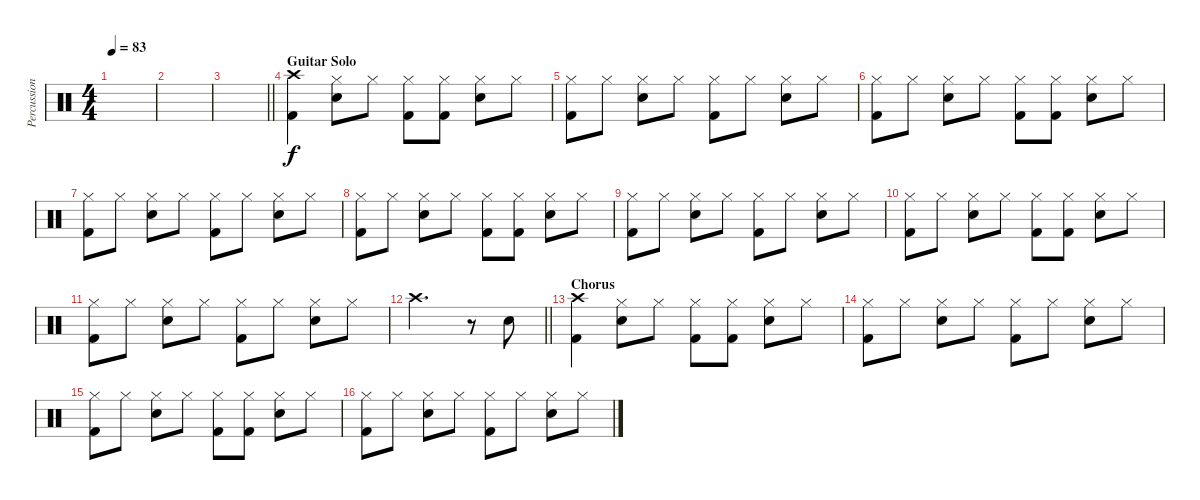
\track ("Percussion" "Percussion") {instrument percussion}
\staff {score}
\articulation defaults
\ts (4 4)
\tempo 83
\clef neutral
\ks c
|
|
\barLineRight lightlight
|
\section ("" "Guitar Solo")
("Crash high (hit)" "Kick (hit) 2").4 ("Hi-Hat (closed)" "Snare (hit) 2").8 "Hi-Hat (closed)".8 ("Hi-Hat (closed)" "Kick (hit) 2").8 ("Hi-Hat (closed)" "Kick (hit) 2").8 ("Hi-Hat (closed)" "Snare (hit) 2").8 "Hi-Hat (closed)".8 |
("Hi-Hat (closed)" "Kick (hit) 2").8 "Hi-Hat (closed)".8 ("Hi-Hat (closed)" "Snare (hit) 2").8 "Hi-Hat (closed)".8 ("Hi-Hat (closed)" "Kick (hit) 2").8 "Hi-Hat (closed)".8 ("Hi-Hat (closed)" "Snare (hit) 2").8 "Hi-Hat (closed)".8 |
("Hi-Hat (closed)" "Kick (hit) 2").8 "Hi-Hat (closed)".8 ("Hi-Hat (closed)" "Snare (hit) 2").8 "Hi-Hat (closed)".8 ("Hi-Hat (closed)" "Kick (hit) 2").8 ("Hi-Hat (closed)" "Kick (hit) 2").8 ("Hi-Hat (closed)" "Snare (hit) 2").8 "Hi-Hat (closed)".8 |
("Hi-Hat (closed)" "Kick (hit) 2").8 "Hi-Hat (closed)".8 ("Hi-Hat (closed)" "Snare (hit) 2").8 "Hi-Hat (closed)".8 ("Hi-Hat (closed)" "Kick (hit) 2").8 "Hi-Hat (closed)".8 ("Hi-Hat (closed)" "Snare (hit) 2").8 "Hi-Hat (closed)".8 |
("Hi-Hat (closed)" "Kick (hit) 2").8 "Hi-Hat (closed)".8 ("Hi-Hat (closed)" "Snare (hit) 2").8 "Hi-Hat (closed)".8 ("Hi-Hat (closed)" "Kick (hit) 2").8 ("Hi-Hat (closed)" "Kick (hit) 2").8 ("Hi-Hat (closed)" "Snare (hit) 2").8 "Hi-Hat (closed)".8 |
("Hi-Hat (closed)" "Kick (hit) 2").8 "Hi-Hat (closed)".8 ("Hi-Hat (closed)" "Snare (hit) 2").8 "Hi-Hat (closed)".8 ("Hi-Hat (closed)" "Kick (hit) 2").8 "Hi-Hat (closed)".8 ("Hi-Hat (closed)" "Snare (hit) 2").8 "Hi-Hat (closed)".8 |
("Hi-Hat (closed)" "Kick (hit) 2").8 "Hi-Hat (closed)".8 ("Hi-Hat (closed)" "Snare (hit) 2").8 "Hi-Hat (closed)".8 ("Hi-Hat (closed)" "Kick (hit) 2").8 ("Hi-Hat (closed)" "Kick (hit) 2").8 ("Hi-Hat (closed)" "Snare (hit) 2").8 "Hi-Hat (closed)".8 |
("Hi-Hat (closed)" "Kick (hit) 2").8 "Hi-Hat (closed)".8 ("Hi-Hat (closed)" "Snare (hit) 2").8 "Hi-Hat (closed)".8 ("Hi-Hat (closed)" "Kick (hit) 2").8 "Hi-Hat (closed)".8 ("Hi-Hat (closed)" "Snare (hit) 2").8 "Hi-Hat (closed)".8 |
\barLineRight lightlight "Crash high (hit)".2{d}
r.8 "Snare (hit) 2".8 |
\section ("" "Chorus")
("Crash high (hit)" "Kick (hit) 2").4 ("Hi-Hat (closed)" "Snare (hit) 2").8 "Hi-Hat (closed)".8 ("Hi-Hat (closed)" "Kick (hit) 2").8 ("Hi-Hat (closed)" "Kick (hit) 2").8 ("Hi-Hat (closed)" "Snare (hit) 2").8 "Hi-Hat (closed)".8 |
("Hi-Hat (closed)" "Kick (hit) 2").8 "Hi-Hat (closed)".8 ("Hi-Hat (closed)" "Snare (hit) 2").8 "Hi-Hat (closed)".8 ("Hi-Hat (closed)" "Kick (hit) 2").8 "Hi-Hat (closed)".8 ("Hi-Hat (closed)" "Snare (hit) 2").8 "Hi-Hat (closed)".8 |
("Hi-Hat (closed)" "Kick (hit) 2").8 "Hi-Hat (closed)".8 ("Hi-Hat (closed)" "Snare (hit) 2").8 "Hi-Hat (closed)".8 ("Hi-Hat (closed)" "Kick (hit) 2").8 ("Hi-Hat (closed)" "Kick (hit) 2").8 ("Hi-Hat (closed)" "Snare (hit) 2").8 "Hi-Hat (closed)".8 |
("Hi-Hat (closed)" "Kick (hit) 2").8 "Hi-Hat (closed)".8 ("Hi-Hat (closed)" "Snare (hit) 2").8 "Hi-Hat (closed)".8 ("Hi-Hat (closed)" "Kick (hit) 2").8 "Hi-Hat (closed)".8 ("Hi-Hat (closed)" "Snare (hit) 2").8 "Hi-Hat (closed)".8
